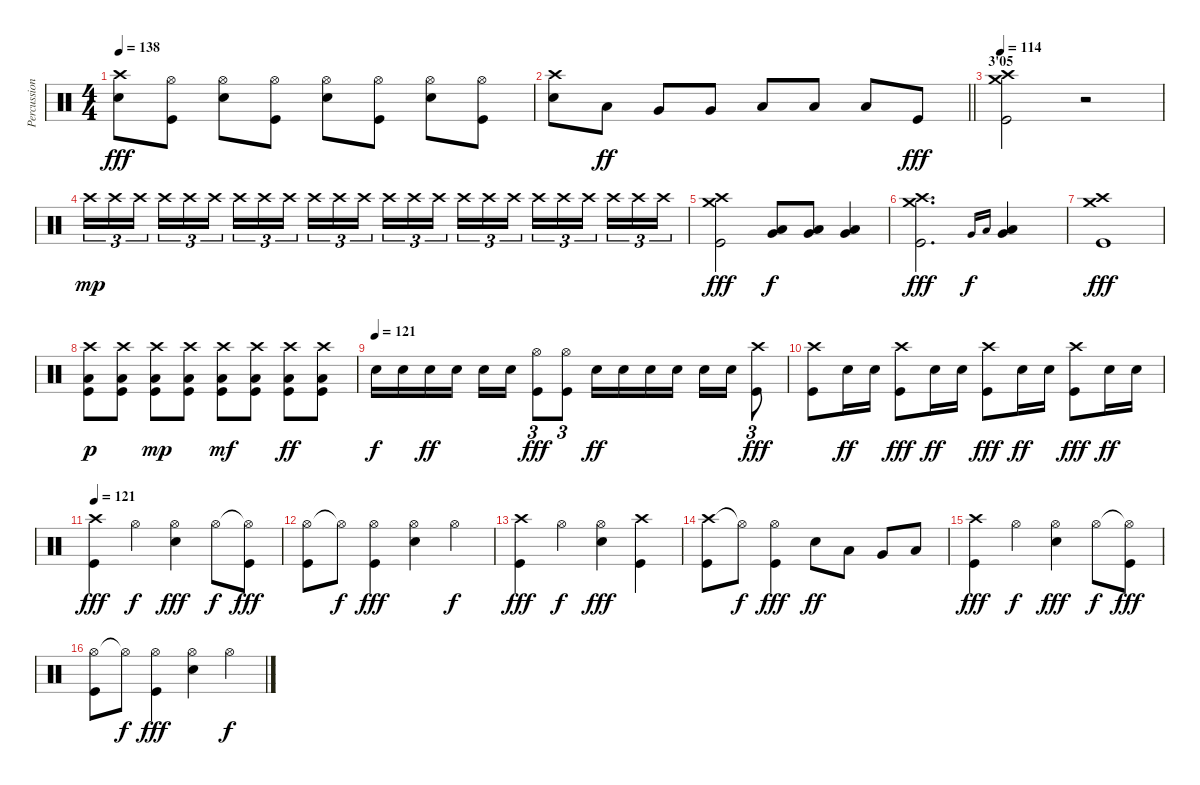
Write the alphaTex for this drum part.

\track ("Percussions" "Percussion") {instrument percussion}
\staff {score}
\articulation defaults
\ts (4 4)
\tempo 138
\clef neutral
\ks c
("Crash high (hit)" "Electric Snare (hit)").8{dy fff} ("Hi-Hat (open)" "Kick (hit)").8 ("Hi-Hat (open)" "Electric Snare (hit)").8 ("Hi-Hat (open)" "Kick (hit)").8 ("Hi-Hat (open)" "Electric Snare (hit)").8 ("Hi-Hat (open)" "Kick (hit)").8 ("Hi-Hat (open)" "Electric Snare (hit)").8 ("Hi-Hat (open)" "Kick (hit)").8 |
\barLineRight lightlight
("Crash high (hit)" "Electric Snare (hit)").8 "Low Tom (hit)".8{dy ff} "Very Low Tom (hit)".8 "Very Low Tom (hit)".8 "Low Floor Tom (hit)".8 "Low Floor Tom (hit)".8 "Low Floor Tom (hit)".8 "Kick (hit)".8{dy fff} |
\section ("" "3'05")
\tempo 114
("Crash high (hit)" "Crash medium (hit)" "Kick (hit)").2{volume 5} r.2 |
"Crash high (hit)".16{tu (3 2) dy mp volume 13} "Crash high (hit)".16{tu (3 2)} "Crash high (hit)".16{tu (3 2) beam splitsecondary} "Crash high (hit)".16{tu (3 2)} "Crash high (hit)".16{tu (3 2)} "Crash high (hit)".16{tu (3 2)} "Crash high (hit)".16{tu (3 2)} "Crash high (hit)".16{tu (3 2)} "Crash high (hit)".16{tu (3 2) beam splitsecondary} "Crash high (hit)".16{tu (3 2)} "Crash high (hit)".16{tu (3 2)} "Crash high (hit)".16{tu (3 2)} "Crash high (hit)".16{tu (3 2)} "Crash high (hit)".16{tu (3 2)} "Crash high (hit)".16{tu (3 2) beam splitsecondary} "Crash high (hit)".16{tu (3 2)} "Crash high (hit)".16{tu (3 2)} "Crash high (hit)".16{tu (3 2)} "Crash high (hit)".16{tu (3 2)} "Crash high (hit)".16{tu (3 2)} "Crash high (hit)".16{tu (3 2) beam splitsecondary} "Crash high (hit)".16{tu (3 2)} "Crash high (hit)".16{tu (3 2)} "Crash high (hit)".16{tu (3 2)} |
("Crash high (hit)" "Crash medium (hit)" "Kick (hit)").2{dy fff} ("Low Tom (hit)" "Very Low Tom (hit)").8{dy f} ("Very Low Tom (hit)" "Low Floor Tom (hit)").8 ("Very Low Tom (hit)" "Low Floor Tom (hit)").4 |
("Crash high (hit)" "Crash medium (hit)" "Kick (hit)").2{d dy fff} "Very Low Tom (hit)".16{gr onbeat dy f} "Low Floor Tom (hit)".16{gr onbeat} ("Very Low Tom (hit)" "Low Floor Tom (hit)").4 |
("Crash high (hit)" "Crash medium (hit)" "Kick (hit)").1{dy fff} |
("Crash high (hit)" "Low Floor Tom (hit)" "Kick (hit)").8{dy p} ("Crash high (hit)" "Low Floor Tom (hit)" "Kick (hit)").8 ("Crash high (hit)" "Low Floor Tom (hit)" "Kick (hit)").8{dy mp} ("Crash high (hit)" "Low Floor Tom (hit)" "Kick (hit)").8 ("Crash high (hit)" "Low Floor Tom (hit)" "Kick (hit)").8{dy mf} ("Crash high (hit)" "Low Floor Tom (hit)" "Kick (hit)").8 ("Crash high (hit)" "Low Floor Tom (hit)" "Kick (hit)").8{dy ff} ("Crash high (hit)" "Low Floor Tom (hit)" "Kick (hit)").8 |
\tempo (121)
"Electric Snare (hit)".16{dy f} "Electric Snare (hit)".16 "Electric Snare (hit)".16{dy ff} "Electric Snare (hit)".16 "Electric Snare (hit)".16 "Electric Snare (hit)".16 ("Hi-Hat (open)" "Kick (hit)").8{tu (3 2) dy fff} ("Hi-Hat (open)" "Kick (hit)").8{tu (3 2)} "Electric Snare (hit)".16{dy ff} "Electric Snare (hit)".16 "Electric Snare (hit)".16 "Electric Snare (hit)".16 "Electric Snare (hit)".16 "Electric Snare (hit)".16 ("Crash high (hit)" "Kick (hit)").8{tu (3 2) dy fff} |
("Crash high (hit)" "Kick (hit)").8 "Electric Snare (hit)".16{dy ff} "Electric Snare (hit)".16 ("Crash high (hit)" "Kick (hit)").8{dy fff} "Electric Snare (hit)".16{dy ff} "Electric Snare (hit)".16 ("Crash high (hit)" "Kick (hit)").8{dy fff} "Electric Snare (hit)".16{dy ff} "Electric Snare (hit)".16 ("Crash high (hit)" "Kick (hit)").8{dy fff} "Electric Snare (hit)".16{dy ff} "Electric Snare (hit)".16 |
\tempo 121
("Crash high (hit)" "Kick (hit)").4{dy fff} "Hi-Hat (open)".4{dy f} ("Hi-Hat (open)" "Electric Snare (hit)").4{dy fff} "Hi-Hat (open)".8{dy f} ("Hi-Hat (open)"{t} "Kick (hit)").8{dy fff} |
("Hi-Hat (open)" "Kick (hit)").8 "Hi-Hat (open)"{t}.8{dy f} ("Hi-Hat (open)" "Kick (hit)").4{dy fff} ("Hi-Hat (open)" "Electric Snare (hit)").4 "Hi-Hat (open)".4{dy f} |
("Crash high (hit)" "Kick (hit)").4{dy fff} "Hi-Hat (open)".4{dy f} ("Hi-Hat (open)" "Electric Snare (hit)").4{dy fff} ("Crash high (hit)" "Kick (hit)").4 |
("Crash high (hit)" "Kick (hit)").8 "Hi-Hat (open)"{t}.8{dy f} ("Hi-Hat (open)" "Kick (hit)").4{dy fff} "Electric Snare (hit)".8{dy ff} "Low Tom (hit)".8 "Very Low Tom (hit)".8 "Low Floor Tom (hit)".8 |
("Crash high (hit)" "Kick (hit)").4{dy fff} "Hi-Hat (open)".4{dy f} ("Hi-Hat (open)" "Electric Snare (hit)").4{dy fff} "Hi-Hat (open)".8{dy f} ("Hi-Hat (open)"{t} "Kick (hit)").8{dy fff} |
("Hi-Hat (open)" "Kick (hit)").8 "Hi-Hat (open)"{t}.8{dy f} ("Hi-Hat (open)" "Kick (hit)").4{dy fff} ("Hi-Hat (open)" "Electric Snare (hit)").4 "Hi-Hat (open)".4{dy f}
